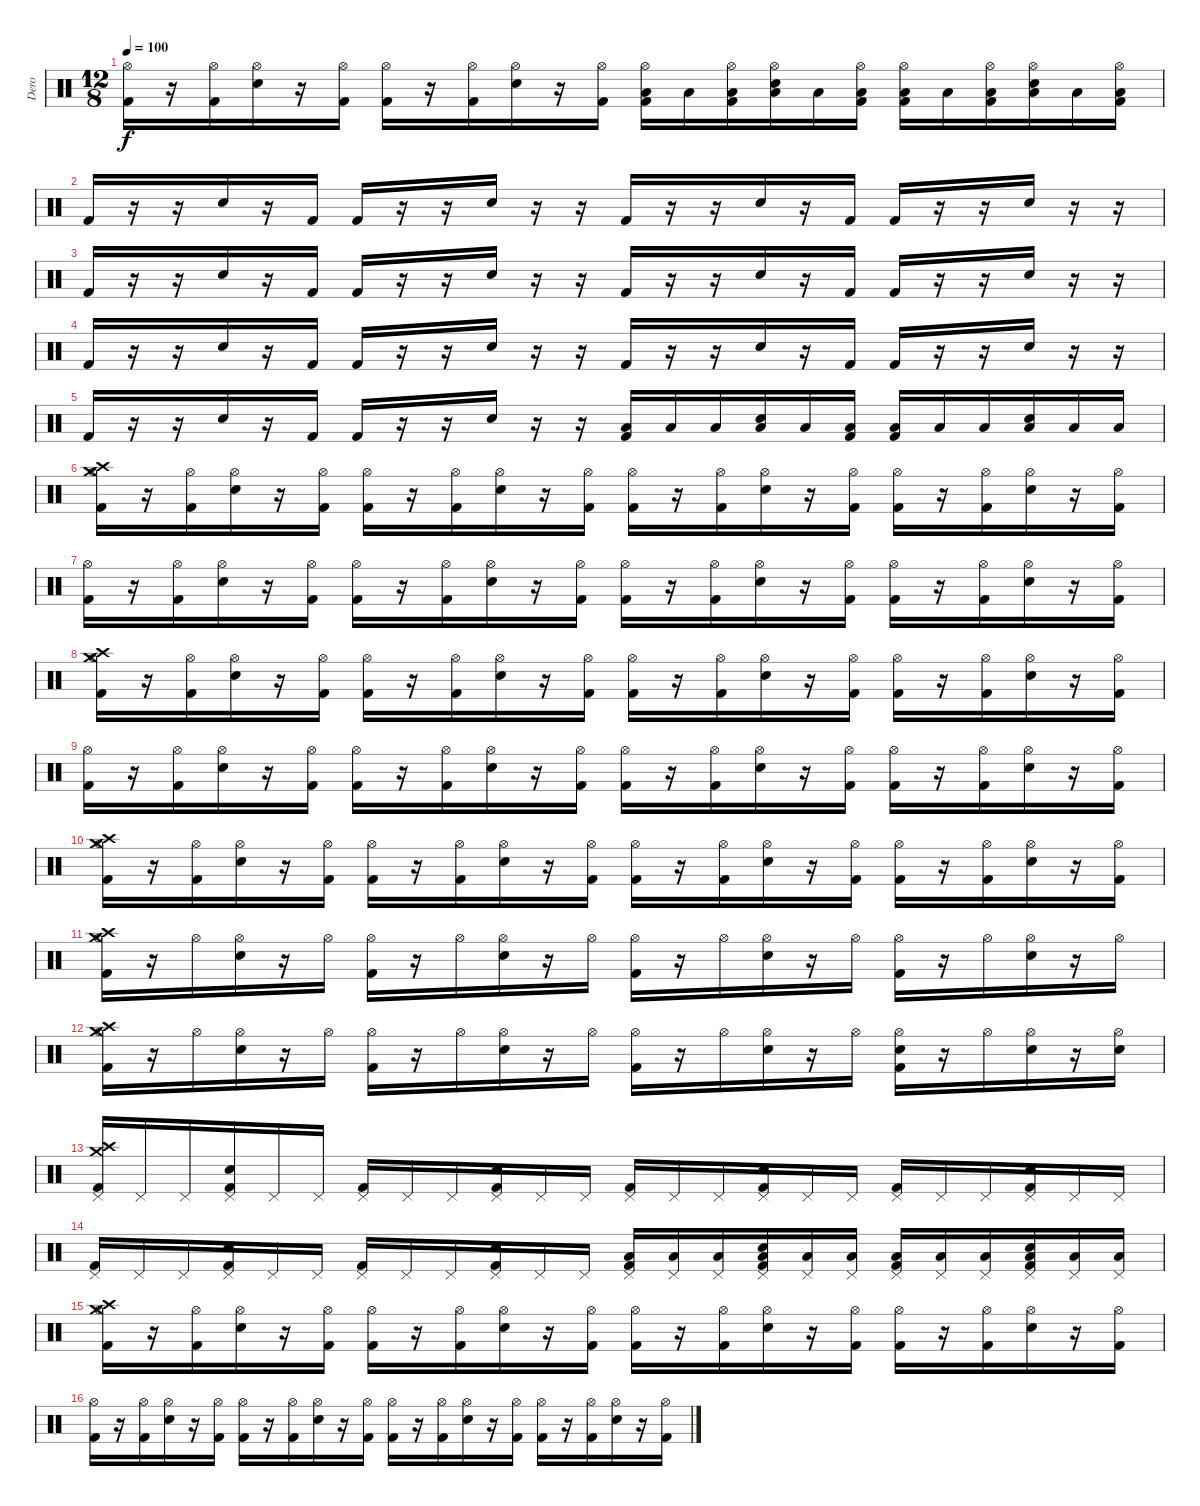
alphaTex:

\track ("Dero" "Dero") {instrument percussion}
\staff {score}
\articulation defaults
\ts (12 8)
\tempo 100
\clef neutral
\ks c
("Hi-Hat (open)" "Kick (hit) 2").16{dy f volume 16} r.16 ("Hi-Hat (open)" "Kick (hit) 2").16 ("Hi-Hat (open)" "Snare (hit) 2").16 r.16 ("Hi-Hat (open)" "Kick (hit) 2").16 ("Hi-Hat (open)" "Kick (hit) 2").16 r.16 ("Hi-Hat (open)" "Kick (hit) 2").16 ("Hi-Hat (open)" "Snare (hit) 2").16 r.16 ("Hi-Hat (open)" "Kick (hit) 2").16 ("Hi-Hat (open)" "Low Tom (hit)" "Kick (hit) 2").16 "Low Tom (hit)".16 ("Hi-Hat (open)" "Low Tom (hit)" "Kick (hit) 2").16 ("Hi-Hat (open)" "Low Tom (hit)" "Snare (hit) 2").16 "Low Tom (hit)".16 ("Hi-Hat (open)" "Low Tom (hit)" "Kick (hit) 2").16 ("Hi-Hat (open)" "Low Tom (hit)" "Kick (hit) 2").16 "Low Tom (hit)".16 ("Hi-Hat (open)" "Low Tom (hit)" "Kick (hit) 2").16 ("Hi-Hat (open)" "Low Tom (hit)" "Snare (hit) 2").16 "Low Tom (hit)".16 ("Hi-Hat (open)" "Low Tom (hit)" "Kick (hit) 2").16 |
"Kick (hit) 2".16 r.16 r.16 "Snare (hit) 2".16 r.16 "Kick (hit) 2".16 "Kick (hit) 2".16 r.16 r.16 "Snare (hit) 2".16 r.16 r.16 "Kick (hit) 2".16 r.16 r.16 "Snare (hit) 2".16 r.16 "Kick (hit) 2".16 "Kick (hit) 2".16 r.16 r.16 "Snare (hit) 2".16 r.16 r.16 |
"Kick (hit) 2".16 r.16 r.16 "Snare (hit) 2".16 r.16 "Kick (hit) 2".16 "Kick (hit) 2".16 r.16 r.16 "Snare (hit) 2".16 r.16 r.16 "Kick (hit) 2".16 r.16 r.16 "Snare (hit) 2".16 r.16 "Kick (hit) 2".16 "Kick (hit) 2".16 r.16 r.16 "Snare (hit) 2".16 r.16 r.16 |
"Kick (hit) 2".16 r.16 r.16 "Snare (hit) 2".16 r.16 "Kick (hit) 2".16 "Kick (hit) 2".16 r.16 r.16 "Snare (hit) 2".16 r.16 r.16 "Kick (hit) 2".16 r.16 r.16 "Snare (hit) 2".16 r.16 "Kick (hit) 2".16 "Kick (hit) 2".16 r.16 r.16 "Snare (hit) 2".16 r.16 r.16 |
"Kick (hit) 2".16 r.16 r.16 "Snare (hit) 2".16 r.16 "Kick (hit) 2".16 "Kick (hit) 2".16 r.16 r.16 "Snare (hit) 2".16 r.16 r.16 ("Low Tom (hit)" "Kick (hit) 2").16 "Low Tom (hit)".16 "Low Tom (hit)".16 ("Low Tom (hit)" "Snare (hit) 2").16 "Low Tom (hit)".16 ("Low Tom (hit)" "Kick (hit) 2").16 ("Low Tom (hit)" "Kick (hit) 2").16 "Low Tom (hit)".16 "Low Tom (hit)".16 ("Low Tom (hit)" "Snare (hit) 2").16 "Low Tom (hit)".16 "Low Tom (hit)".16 |
("Crash high (hit)" "Hi-Hat (open)" "Crash medium (hit)" "Kick (hit) 2").16{volume 16} r.16 ("Hi-Hat (open)" "Kick (hit) 2").16 ("Hi-Hat (open)" "Snare (hit) 2").16 r.16 ("Hi-Hat (open)" "Kick (hit) 2").16 ("Hi-Hat (open)" "Kick (hit) 2").16 r.16 ("Hi-Hat (open)" "Kick (hit) 2").16 ("Hi-Hat (open)" "Snare (hit) 2").16 r.16 ("Hi-Hat (open)" "Kick (hit) 2").16 ("Hi-Hat (open)" "Kick (hit) 2").16 r.16 ("Hi-Hat (open)" "Kick (hit) 2").16 ("Hi-Hat (open)" "Snare (hit) 2").16 r.16 ("Hi-Hat (open)" "Kick (hit) 2").16 ("Hi-Hat (open)" "Kick (hit) 2").16 r.16 ("Hi-Hat (open)" "Kick (hit) 2").16 ("Hi-Hat (open)" "Snare (hit) 2").16 r.16 ("Hi-Hat (open)" "Kick (hit) 2").16 |
("Hi-Hat (open)" "Kick (hit) 2").16{volume 16} r.16 ("Hi-Hat (open)" "Kick (hit) 2").16 ("Hi-Hat (open)" "Snare (hit) 2").16 r.16 ("Hi-Hat (open)" "Kick (hit) 2").16 ("Hi-Hat (open)" "Kick (hit) 2").16 r.16 ("Hi-Hat (open)" "Kick (hit) 2").16 ("Hi-Hat (open)" "Snare (hit) 2").16 r.16 ("Hi-Hat (open)" "Kick (hit) 2").16 ("Hi-Hat (open)" "Kick (hit) 2").16 r.16 ("Hi-Hat (open)" "Kick (hit) 2").16 ("Hi-Hat (open)" "Snare (hit) 2").16 r.16 ("Hi-Hat (open)" "Kick (hit) 2").16 ("Hi-Hat (open)" "Kick (hit) 2").16 r.16 ("Hi-Hat (open)" "Kick (hit) 2").16 ("Hi-Hat (open)" "Snare (hit) 2").16 r.16 ("Hi-Hat (open)" "Kick (hit) 2").16 |
("Crash high (hit)" "Hi-Hat (open)" "Crash medium (hit)" "Kick (hit) 2").16{volume 16} r.16 ("Hi-Hat (open)" "Kick (hit) 2").16 ("Hi-Hat (open)" "Snare (hit) 2").16 r.16 ("Hi-Hat (open)" "Kick (hit) 2").16 ("Hi-Hat (open)" "Kick (hit) 2").16 r.16 ("Hi-Hat (open)" "Kick (hit) 2").16 ("Hi-Hat (open)" "Snare (hit) 2").16 r.16 ("Hi-Hat (open)" "Kick (hit) 2").16 ("Hi-Hat (open)" "Kick (hit) 2").16 r.16 ("Hi-Hat (open)" "Kick (hit) 2").16 ("Hi-Hat (open)" "Snare (hit) 2").16 r.16 ("Hi-Hat (open)" "Kick (hit) 2").16 ("Hi-Hat (open)" "Kick (hit) 2").16 r.16 ("Hi-Hat (open)" "Kick (hit) 2").16 ("Hi-Hat (open)" "Snare (hit) 2").16 r.16 ("Hi-Hat (open)" "Kick (hit) 2").16 |
("Hi-Hat (open)" "Kick (hit) 2").16{volume 16} r.16 ("Hi-Hat (open)" "Kick (hit) 2").16 ("Hi-Hat (open)" "Snare (hit) 2").16 r.16 ("Hi-Hat (open)" "Kick (hit) 2").16 ("Hi-Hat (open)" "Kick (hit) 2").16 r.16 ("Hi-Hat (open)" "Kick (hit) 2").16 ("Hi-Hat (open)" "Snare (hit) 2").16 r.16 ("Hi-Hat (open)" "Kick (hit) 2").16 ("Hi-Hat (open)" "Kick (hit) 2").16 r.16 ("Hi-Hat (open)" "Kick (hit) 2").16 ("Hi-Hat (open)" "Snare (hit) 2").16 r.16 ("Hi-Hat (open)" "Kick (hit) 2").16 ("Hi-Hat (open)" "Kick (hit) 2").16 r.16 ("Hi-Hat (open)" "Kick (hit) 2").16 ("Hi-Hat (open)" "Snare (hit) 2").16 r.16 ("Hi-Hat (open)" "Kick (hit) 2").16 |
("Crash high (hit)" "Hi-Hat (open)" "Crash medium (hit)" "Kick (hit) 2").16{volume 16} r.16 ("Hi-Hat (open)" "Kick (hit) 2").16 ("Hi-Hat (open)" "Snare (hit) 2").16 r.16 ("Hi-Hat (open)" "Kick (hit) 2").16 ("Hi-Hat (open)" "Kick (hit) 2").16 r.16 ("Hi-Hat (open)" "Kick (hit) 2").16 ("Hi-Hat (open)" "Snare (hit) 2").16 r.16 ("Hi-Hat (open)" "Kick (hit) 2").16 ("Hi-Hat (open)" "Kick (hit) 2").16 r.16 ("Hi-Hat (open)" "Kick (hit) 2").16 ("Hi-Hat (open)" "Snare (hit) 2").16 r.16 ("Hi-Hat (open)" "Kick (hit) 2").16 ("Hi-Hat (open)" "Kick (hit) 2").16 r.16 ("Hi-Hat (open)" "Kick (hit) 2").16 ("Hi-Hat (open)" "Snare (hit) 2").16 r.16 ("Hi-Hat (open)" "Kick (hit) 2").16 |
("Crash medium (hit)" "Crash high (hit)" "Hi-Hat (open)" "Kick (hit) 2").16 r.16 "Hi-Hat (open)".16 ("Hi-Hat (open)" "Snare (hit) 2").16 r.16 "Hi-Hat (open)".16 ("Hi-Hat (open)" "Kick (hit) 2").16 r.16 "Hi-Hat (open)".16 ("Hi-Hat (open)" "Snare (hit) 2").16 r.16 "Hi-Hat (open)".16 ("Hi-Hat (open)" "Kick (hit) 2").16 r.16 "Hi-Hat (open)".16 ("Hi-Hat (open)" "Snare (hit) 2").16 r.16 "Hi-Hat (open)".16 ("Hi-Hat (open)" "Kick (hit) 2").16 r.16 "Hi-Hat (open)".16 ("Hi-Hat (open)" "Snare (hit) 2").16 r.16 "Hi-Hat (open)".16 |
("Crash medium (hit)" "Crash high (hit)" "Hi-Hat (open)" "Kick (hit) 2").16 r.16 "Hi-Hat (open)".16 ("Hi-Hat (open)" "Snare (hit) 2").16 r.16 "Hi-Hat (open)".16 ("Hi-Hat (open)" "Kick (hit) 2").16 r.16 "Hi-Hat (open)".16 ("Hi-Hat (open)" "Snare (hit) 2").16 r.16 "Hi-Hat (open)".16 ("Hi-Hat (open)" "Kick (hit) 2").16 r.16 "Hi-Hat (open)".16 ("Hi-Hat (open)" "Snare (hit) 2").16 r.16 "Hi-Hat (open)".16 ("Hi-Hat (open)" "Snare (hit) 2" "Kick (hit) 2").16 r.16 "Hi-Hat (open)".16 ("Hi-Hat (open)" "Snare (hit) 2").16 r.16 ("Hi-Hat (open)" "Snare (hit) 2").16 |
("Crash medium (hit)" "Crash high (hit)" "Pedal Hi-Hat (hit)" "Kick (hit) 2").16 "Pedal Hi-Hat (hit)".16 "Pedal Hi-Hat (hit)".16 ("Pedal Hi-Hat (hit)" "Snare (hit) 2" "Kick (hit) 2").16 "Pedal Hi-Hat (hit)".16 "Pedal Hi-Hat (hit)".16 ("Pedal Hi-Hat (hit)" "Kick (hit) 2").16 "Pedal Hi-Hat (hit)".16 "Pedal Hi-Hat (hit)".16 ("Pedal Hi-Hat (hit)" "Snare (hit) 2" "Kick (hit) 2").16 "Pedal Hi-Hat (hit)".16 "Pedal Hi-Hat (hit)".16 ("Pedal Hi-Hat (hit)" "Kick (hit) 2").16 "Pedal Hi-Hat (hit)".16 "Pedal Hi-Hat (hit)".16 ("Pedal Hi-Hat (hit)" "Snare (hit) 2" "Kick (hit) 2").16 "Pedal Hi-Hat (hit)".16 "Pedal Hi-Hat (hit)".16 ("Pedal Hi-Hat (hit)" "Kick (hit) 2").16 "Pedal Hi-Hat (hit)".16 "Pedal Hi-Hat (hit)".16 ("Pedal Hi-Hat (hit)" "Snare (hit) 2" "Kick (hit) 2").16 "Pedal Hi-Hat (hit)".16 "Pedal Hi-Hat (hit)".16 |
("Pedal Hi-Hat (hit)" "Kick (hit) 2").16 "Pedal Hi-Hat (hit)".16 "Pedal Hi-Hat (hit)".16 ("Pedal Hi-Hat (hit)" "Snare (hit) 2" "Kick (hit) 2").16 "Pedal Hi-Hat (hit)".16 "Pedal Hi-Hat (hit)".16 ("Pedal Hi-Hat (hit)" "Kick (hit) 2").16 "Pedal Hi-Hat (hit)".16 "Pedal Hi-Hat (hit)".16 ("Pedal Hi-Hat (hit)" "Snare (hit) 2" "Kick (hit) 2").16 "Pedal Hi-Hat (hit)".16 "Pedal Hi-Hat (hit)".16 ("Low Tom (hit)" "Pedal Hi-Hat (hit)" "Kick (hit) 2").16 ("Low Tom (hit)" "Pedal Hi-Hat (hit)").16 ("Low Tom (hit)" "Pedal Hi-Hat (hit)").16 ("Low Tom (hit)" "Pedal Hi-Hat (hit)" "Snare (hit) 2" "Kick (hit) 2").16 ("Low Tom (hit)" "Pedal Hi-Hat (hit)").16 ("Low Tom (hit)" "Pedal Hi-Hat (hit)").16 ("Low Tom (hit)" "Pedal Hi-Hat (hit)" "Kick (hit) 2").16 ("Low Tom (hit)" "Pedal Hi-Hat (hit)").16 ("Low Tom (hit)" "Pedal Hi-Hat (hit)").16 ("Low Tom (hit)" "Pedal Hi-Hat (hit)" "Snare (hit) 2" "Kick (hit) 2").16 ("Low Tom (hit)" "Pedal Hi-Hat (hit)").16 ("Low Tom (hit)" "Pedal Hi-Hat (hit)").16 |
("Crash high (hit)" "Hi-Hat (open)" "Crash medium (hit)" "Kick (hit) 2").16{volume 16} r.16 ("Hi-Hat (open)" "Kick (hit) 2").16 ("Hi-Hat (open)" "Snare (hit) 2").16 r.16 ("Hi-Hat (open)" "Kick (hit) 2").16 ("Hi-Hat (open)" "Kick (hit) 2").16 r.16 ("Hi-Hat (open)" "Kick (hit) 2").16 ("Hi-Hat (open)" "Snare (hit) 2").16 r.16 ("Hi-Hat (open)" "Kick (hit) 2").16 ("Hi-Hat (open)" "Kick (hit) 2").16 r.16 ("Hi-Hat (open)" "Kick (hit) 2").16 ("Hi-Hat (open)" "Snare (hit) 2").16 r.16 ("Hi-Hat (open)" "Kick (hit) 2").16 ("Hi-Hat (open)" "Kick (hit) 2").16 r.16 ("Hi-Hat (open)" "Kick (hit) 2").16 ("Hi-Hat (open)" "Snare (hit) 2").16 r.16 ("Hi-Hat (open)" "Kick (hit) 2").16 |
("Hi-Hat (open)" "Kick (hit) 2").16{volume 16} r.16 ("Hi-Hat (open)" "Kick (hit) 2").16 ("Hi-Hat (open)" "Snare (hit) 2").16 r.16 ("Hi-Hat (open)" "Kick (hit) 2").16 ("Hi-Hat (open)" "Kick (hit) 2").16 r.16 ("Hi-Hat (open)" "Kick (hit) 2").16 ("Hi-Hat (open)" "Snare (hit) 2").16 r.16 ("Hi-Hat (open)" "Kick (hit) 2").16 ("Hi-Hat (open)" "Kick (hit) 2").16 r.16 ("Hi-Hat (open)" "Kick (hit) 2").16 ("Hi-Hat (open)" "Snare (hit) 2").16 r.16 ("Hi-Hat (open)" "Kick (hit) 2").16 ("Hi-Hat (open)" "Kick (hit) 2").16 r.16 ("Hi-Hat (open)" "Kick (hit) 2").16 ("Hi-Hat (open)" "Snare (hit) 2").16 r.16 ("Hi-Hat (open)" "Kick (hit) 2").16
